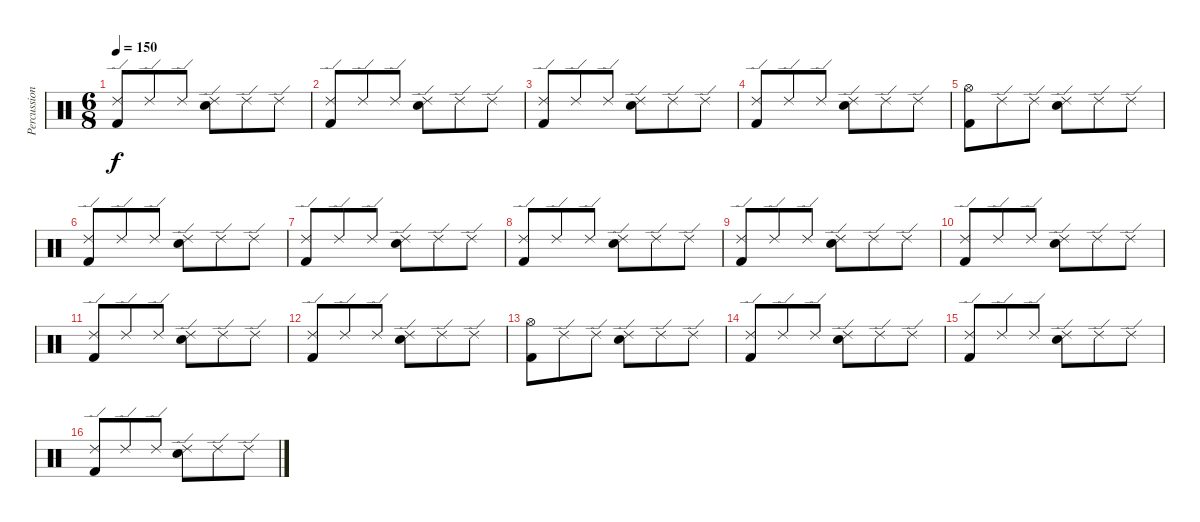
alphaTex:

\track ("Percussion" "Percussion") {instrument percussion}
\staff {score}
\articulation defaults
\ts (6 8)
\tempo 150
\clef neutral
\ks c
("Ride (edge) 2" "Kick (hit) 2").8{dy f} "Ride (edge) 2".8 "Ride (edge) 2".8 ("Ride (edge) 2" "Electric Snare (hit)").8 "Ride (edge) 2".8 "Ride (edge) 2".8 |
("Ride (edge) 2" "Kick (hit) 2").8 "Ride (edge) 2".8 "Ride (edge) 2".8 ("Ride (edge) 2" "Electric Snare (hit)").8 "Ride (edge) 2".8 "Ride (edge) 2".8 |
("Ride (edge) 2" "Kick (hit) 2").8 "Ride (edge) 2".8 "Ride (edge) 2".8 ("Ride (edge) 2" "Electric Snare (hit)").8 "Ride (edge) 2".8 "Ride (edge) 2".8 |
("Ride (edge) 2" "Kick (hit) 2").8 "Ride (edge) 2".8 "Ride (edge) 2".8 ("Ride (edge) 2" "Electric Snare (hit)").8 "Ride (edge) 2".8 "Ride (edge) 2".8 |
("Hi-Hat (open)" "Kick (hit) 2").8 "Ride (edge) 2".8 "Ride (edge) 2".8 ("Ride (edge) 2" "Electric Snare (hit)").8 "Ride (edge) 2".8 "Ride (edge) 2".8 |
("Ride (edge) 2" "Kick (hit) 2").8 "Ride (edge) 2".8 "Ride (edge) 2".8 ("Ride (edge) 2" "Electric Snare (hit)").8 "Ride (edge) 2".8 "Ride (edge) 2".8 |
("Ride (edge) 2" "Kick (hit) 2").8 "Ride (edge) 2".8 "Ride (edge) 2".8 ("Ride (edge) 2" "Electric Snare (hit)").8 "Ride (edge) 2".8 "Ride (edge) 2".8 |
("Ride (edge) 2" "Kick (hit) 2").8 "Ride (edge) 2".8 "Ride (edge) 2".8 ("Ride (edge) 2" "Electric Snare (hit)").8 "Ride (edge) 2".8 "Ride (edge) 2".8 |
("Ride (edge) 2" "Kick (hit) 2").8 "Ride (edge) 2".8 "Ride (edge) 2".8 ("Ride (edge) 2" "Electric Snare (hit)").8 "Ride (edge) 2".8 "Ride (edge) 2".8 |
("Ride (edge) 2" "Kick (hit) 2").8 "Ride (edge) 2".8 "Ride (edge) 2".8 ("Ride (edge) 2" "Electric Snare (hit)").8 "Ride (edge) 2".8 "Ride (edge) 2".8 |
("Ride (edge) 2" "Kick (hit) 2").8 "Ride (edge) 2".8 "Ride (edge) 2".8 ("Ride (edge) 2" "Electric Snare (hit)").8 "Ride (edge) 2".8 "Ride (edge) 2".8 |
("Ride (edge) 2" "Kick (hit) 2").8 "Ride (edge) 2".8 "Ride (edge) 2".8 ("Ride (edge) 2" "Electric Snare (hit)").8 "Ride (edge) 2".8 "Ride (edge) 2".8 |
("Hi-Hat (open)" "Kick (hit) 2").8 "Ride (edge) 2".8 "Ride (edge) 2".8 ("Ride (edge) 2" "Electric Snare (hit)").8 "Ride (edge) 2".8 "Ride (edge) 2".8 |
("Ride (edge) 2" "Kick (hit) 2").8 "Ride (edge) 2".8 "Ride (edge) 2".8 ("Ride (edge) 2" "Electric Snare (hit)").8 "Ride (edge) 2".8 "Ride (edge) 2".8 |
("Ride (edge) 2" "Kick (hit) 2").8 "Ride (edge) 2".8 "Ride (edge) 2".8 ("Ride (edge) 2" "Electric Snare (hit)").8 "Ride (edge) 2".8 "Ride (edge) 2".8 |
("Ride (edge) 2" "Kick (hit) 2").8 "Ride (edge) 2".8 "Ride (edge) 2".8 ("Ride (edge) 2" "Electric Snare (hit)").8 "Ride (edge) 2".8 "Ride (edge) 2".8
